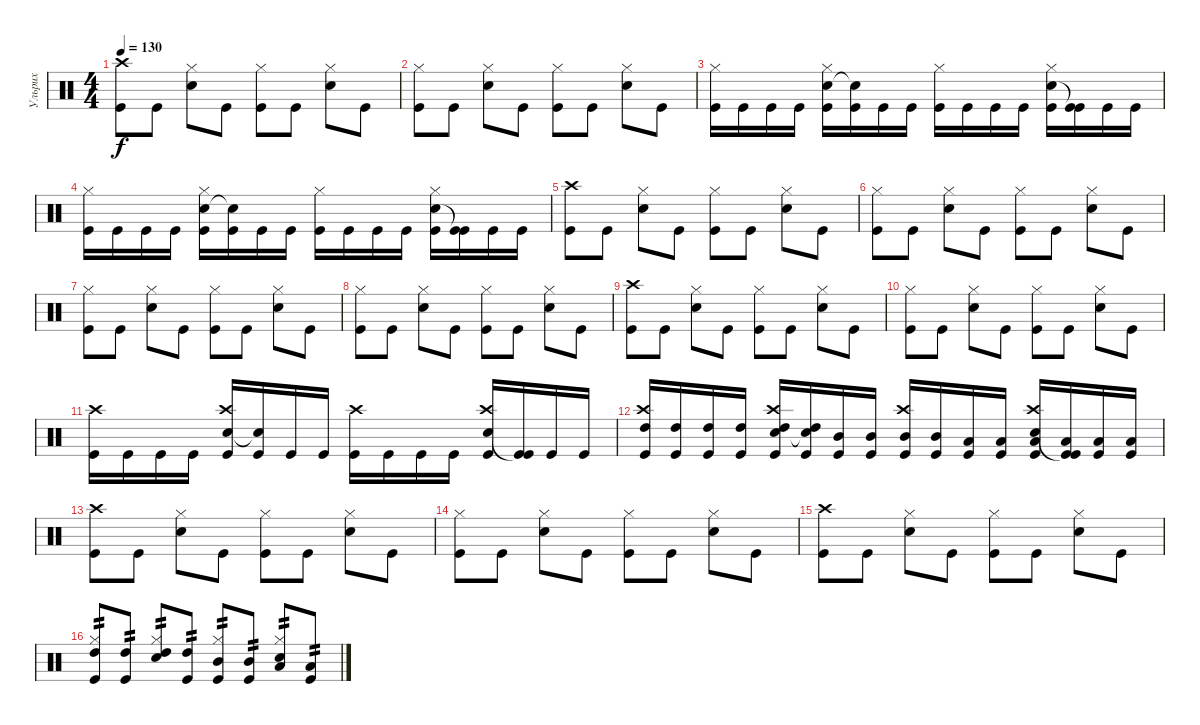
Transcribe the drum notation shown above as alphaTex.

\track ("Ульрих" "Ульрих") {instrument percussion}
\staff {score}
\articulation defaults
\ts (4 4)
\tempo 130
\clef neutral
\ks c
("Kick (hit)" "Crash high (hit)").8{dy f} "Kick (hit)".8 ("Snare (hit) 2" "Hi-Hat (closed)").8 "Kick (hit)".8 ("Kick (hit)" "Hi-Hat (closed)").8 "Kick (hit)".8 ("Snare (hit) 2" "Hi-Hat (closed)").8 "Kick (hit)".8 |
("Kick (hit)" "Hi-Hat (closed)").8 "Kick (hit)".8 ("Snare (hit) 2" "Hi-Hat (closed)").8 "Kick (hit)".8 ("Kick (hit)" "Hi-Hat (closed)").8 "Kick (hit)".8 ("Snare (hit) 2" "Hi-Hat (closed)").8 "Kick (hit)".8 |
("Kick (hit)" "Hi-Hat (closed)").16 "Kick (hit)".16 "Kick (hit)".16 "Kick (hit)".16 ("Snare (hit) 2" "Kick (hit)" "Hi-Hat (closed)").16 ("Snare (hit)"{t} "Kick (hit)").16 "Kick (hit)".16 "Kick (hit)".16 ("Kick (hit)" "Hi-Hat (closed)").16 "Kick (hit)".16 "Kick (hit)".16 "Kick (hit)".16 ("Snare (hit) 2" "Kick (hit)" "Hi-Hat (closed)").16 ("Kick (hit)"{t} "Kick (hit)").16 "Kick (hit)".16 "Kick (hit)".16 |
("Kick (hit)" "Hi-Hat (closed)").16 "Kick (hit)".16 "Kick (hit)".16 "Kick (hit)".16 ("Snare (hit) 2" "Kick (hit)" "Hi-Hat (closed)").16 ("Snare (hit)"{t} "Kick (hit)").16 "Kick (hit)".16 "Kick (hit)".16 ("Kick (hit)" "Hi-Hat (closed)").16 "Kick (hit)".16 "Kick (hit)".16 "Kick (hit)".16 ("Snare (hit) 2" "Kick (hit)" "Hi-Hat (closed)").16 ("Kick (hit)"{t} "Kick (hit)").16 "Kick (hit)".16 "Kick (hit)".16 |
("Kick (hit)" "Crash high (hit)").8 "Kick (hit)".8 ("Snare (hit) 2" "Hi-Hat (closed)").8 "Kick (hit)".8 ("Kick (hit)" "Hi-Hat (closed)").8 "Kick (hit)".8 ("Snare (hit) 2" "Hi-Hat (closed)").8 "Kick (hit)".8 |
("Kick (hit)" "Hi-Hat (closed)").8 "Kick (hit)".8 ("Snare (hit) 2" "Hi-Hat (closed)").8 "Kick (hit)".8 ("Kick (hit)" "Hi-Hat (closed)").8 "Kick (hit)".8 ("Snare (hit) 2" "Hi-Hat (closed)").8 "Kick (hit)".8 |
("Kick (hit)" "Hi-Hat (closed)").8 "Kick (hit)".8 ("Snare (hit) 2" "Hi-Hat (closed)").8 "Kick (hit)".8 ("Kick (hit)" "Hi-Hat (closed)").8 "Kick (hit)".8 ("Snare (hit) 2" "Hi-Hat (closed)").8 "Kick (hit)".8 |
("Kick (hit)" "Hi-Hat (closed)").8 "Kick (hit)".8 ("Snare (hit) 2" "Hi-Hat (closed)").8 "Kick (hit)".8 ("Kick (hit)" "Hi-Hat (closed)").8 "Kick (hit)".8 ("Snare (hit) 2" "Hi-Hat (closed)").8 "Kick (hit)".8 |
("Kick (hit)" "Crash high (hit)").8 "Kick (hit)".8 ("Snare (hit) 2" "Hi-Hat (closed)").8 "Kick (hit)".8 ("Kick (hit)" "Hi-Hat (closed)").8 "Kick (hit)".8 ("Snare (hit) 2" "Hi-Hat (closed)").8 "Kick (hit)".8 |
("Kick (hit)" "Hi-Hat (closed)").8 "Kick (hit)".8 ("Snare (hit) 2" "Hi-Hat (closed)").8 "Kick (hit)".8 ("Kick (hit)" "Hi-Hat (closed)").8 "Kick (hit)".8 ("Snare (hit) 2" "Hi-Hat (closed)").8 "Kick (hit)".8 |
("Kick (hit)" "Crash high (hit)").16 "Kick (hit)".16 "Kick (hit)".16 "Kick (hit)".16 ("Snare (hit) 2" "Kick (hit)" "Crash high (hit)").16 ("Snare (hit)"{t} "Kick (hit)").16 "Kick (hit)".16 "Kick (hit)".16 ("Kick (hit)" "Crash high (hit)").16 "Kick (hit)".16 "Kick (hit)".16 "Kick (hit)".16 ("Snare (hit) 2" "Kick (hit)" "Crash high (hit)").16 ("Kick (hit)"{t} "Kick (hit)").16 "Kick (hit)".16 "Kick (hit)".16 |
("High Tom (hit)" "Kick (hit)" "Crash high (hit)").16 ("High Tom (hit)" "Kick (hit)").16 ("High Tom (hit)" "Kick (hit)").16 ("High Tom (hit)" "Kick (hit)").16 ("High Tom (hit)" "Snare (hit) 2" "Kick (hit)" "Crash high (hit)").16 ("High Tom (hit)" "Snare (hit)"{t} "Kick (hit)").16 ("Mid Tom (hit)" "Kick (hit)").16 ("Mid Tom (hit)" "Kick (hit)").16 ("Mid Tom (hit)" "Kick (hit)" "Crash high (hit)").16 ("Mid Tom (hit)" "Kick (hit)").16 ("Low Tom (hit)" "Kick (hit)").16 ("Low Tom (hit)" "Kick (hit)").16 ("Low Tom (hit)" "Snare (hit) 2" "Kick (hit)" "Crash high (hit)").16 ("Low Tom (hit)" "Kick (hit)"{t} "Kick (hit)").16 ("Low Tom (hit)" "Kick (hit)").16 ("Low Tom (hit)" "Kick (hit)").16 |
("Kick (hit)" "Crash high (hit)").8 "Kick (hit)".8 ("Snare (hit) 2" "Hi-Hat (closed)").8 "Kick (hit)".8 ("Kick (hit)" "Hi-Hat (closed)").8 "Kick (hit)".8 ("Snare (hit) 2" "Hi-Hat (closed)").8 "Kick (hit)".8 |
("Kick (hit)" "Hi-Hat (closed)").8 "Kick (hit)".8 ("Snare (hit) 2" "Hi-Hat (closed)").8 "Kick (hit)".8 ("Kick (hit)" "Hi-Hat (closed)").8 "Kick (hit)".8 ("Snare (hit) 2" "Hi-Hat (closed)").8 "Kick (hit)".8 |
("Kick (hit)" "Crash high (hit)").8 "Kick (hit)".8 ("Snare (hit) 2" "Hi-Hat (closed)").8 "Kick (hit)".8 ("Kick (hit)" "Hi-Hat (closed)").8 "Kick (hit)".8 ("Snare (hit) 2" "Hi-Hat (closed)").8 "Kick (hit)".8 |
("High Tom (hit)" "Kick (hit)" "Hi-Hat (closed)").8{tp 2} ("High Tom (hit)" "Kick (hit)").8{tp 2} ("High Tom (hit)" "Snare (hit) 2" "Hi-Hat (closed)").8{tp 2} ("High Tom (hit)" "Kick (hit)").8{tp 2} ("Mid Tom (hit)" "Kick (hit)" "Hi-Hat (closed)").8{tp 2} ("Mid Tom (hit)" "Kick (hit)").8{tp 2} ("Low Tom (hit)" "Snare (hit) 2" "Hi-Hat (closed)").8{tp 2} ("Low Tom (hit)" "Kick (hit)").8{tp 2}
